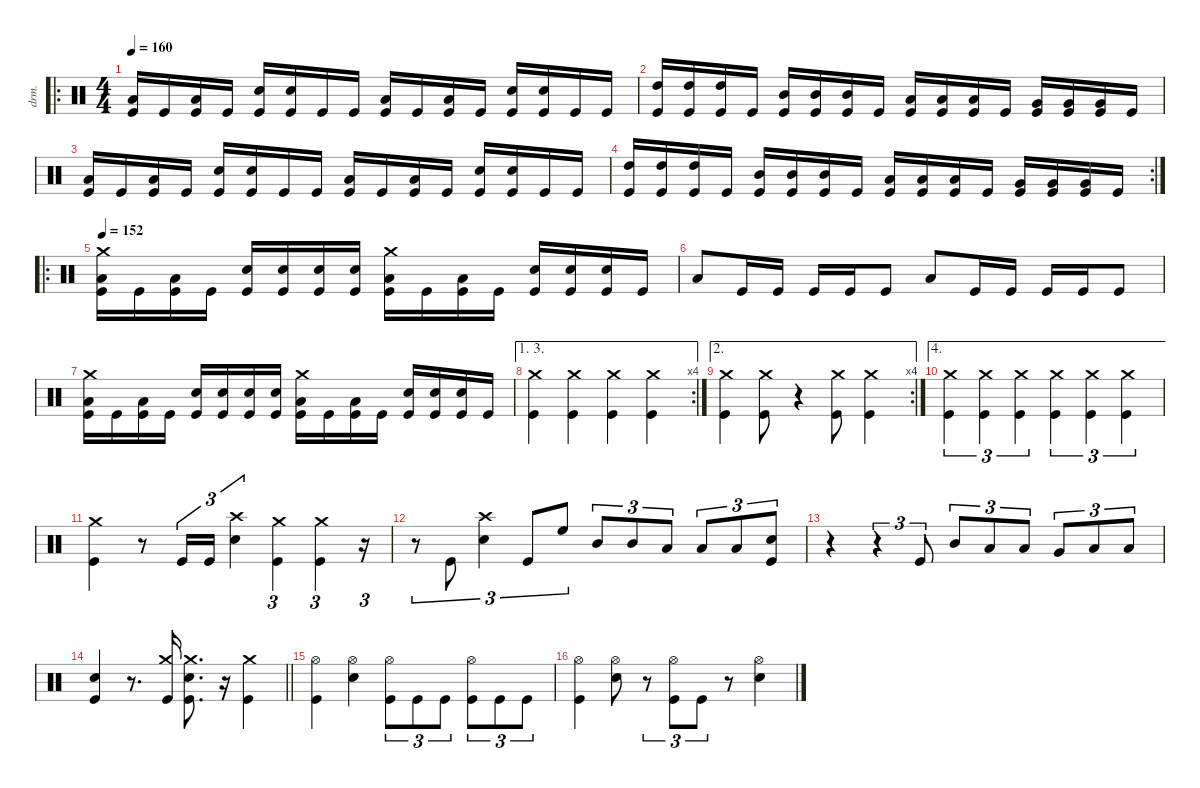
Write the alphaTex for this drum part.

\defaultSystemsLayout 4
\hideDynamics
\bracketExtendMode nobrackets
\otherSystemsTrackNameOrientation horizontal
\track ("Nick Menza" "drm.") {instrument percussion}
\staff {score}
\articulation defaults
\ro
\ts (4 4)
\beaming (8 2 2 2 2)
\tempo 160
\clef neutral
\ks c
("Low Floor Tom (hit)" "Kick (hit)").16{dy f beam Up} "Kick (hit)".16{beam Up} ("Low Floor Tom (hit)" "Kick (hit)").16{beam Up} "Kick (hit)".16{beam Up} ("Snare (hit) 2" "Kick (hit)").16{beam Up} ("Snare (hit) 2" "Kick (hit)").16{beam Up} "Kick (hit)".16{beam Up} "Kick (hit)".16{beam Up} ("Low Floor Tom (hit)" "Kick (hit)").16{beam Up} "Kick (hit)".16{beam Up} ("Low Floor Tom (hit)" "Kick (hit)").16{beam Up} "Kick (hit)".16{beam Up} ("Snare (hit) 2" "Kick (hit)").16{beam Up} ("Snare (hit) 2" "Kick (hit)").16{beam Up} "Kick (hit)".16{beam Up} "Kick (hit)".16{beam Up} |
("High Tom (hit)" "Kick (hit)").16{beam Up} ("High Tom (hit)" "Kick (hit)").16{beam Up} ("High Tom (hit)" "Kick (hit)").16{beam Up} "Kick (hit)".16{beam Up} ("Mid Tom (hit)" "Kick (hit)").16{beam Up} ("Mid Tom (hit)" "Kick (hit)").16{beam Up} ("Mid Tom (hit)" "Kick (hit)").16{beam Up} "Kick (hit)".16{beam Up} ("Low Tom (hit)" "Kick (hit)").16{beam Up} ("Low Tom (hit)" "Kick (hit)").16{beam Up} ("Low Tom (hit)" "Kick (hit)").16{beam Up} "Kick (hit)".16{beam Up} ("Very Low Tom (hit)" "Kick (hit)").16{beam Up} ("Very Low Tom (hit)" "Kick (hit)").16{beam Up} ("Very Low Tom (hit)" "Kick (hit)").16{beam Up} "Kick (hit)".16{beam Up} |
("Low Floor Tom (hit)" "Kick (hit)").16{beam Up} "Kick (hit)".16{beam Up} ("Low Floor Tom (hit)" "Kick (hit)").16{beam Up} "Kick (hit)".16{beam Up} ("Snare (hit) 2" "Kick (hit)").16{beam Up} ("Snare (hit) 2" "Kick (hit)").16{beam Up} "Kick (hit)".16{beam Up} "Kick (hit)".16{beam Up} ("Low Floor Tom (hit)" "Kick (hit)").16{beam Up} "Kick (hit)".16{beam Up} ("Low Floor Tom (hit)" "Kick (hit)").16{beam Up} "Kick (hit)".16{beam Up} ("Snare (hit) 2" "Kick (hit)").16{beam Up} ("Snare (hit) 2" "Kick (hit)").16{beam Up} "Kick (hit)".16{beam Up} "Kick (hit)".16{beam Up} |
\rc 2
("High Tom (hit)" "Kick (hit)").16{beam Up} ("High Tom (hit)" "Kick (hit)").16{beam Up} ("High Tom (hit)" "Kick (hit)").16{beam Up} "Kick (hit)".16{beam Up} ("Mid Tom (hit)" "Kick (hit)").16{beam Up} ("Mid Tom (hit)" "Kick (hit)").16{beam Up} ("Mid Tom (hit)" "Kick (hit)").16{beam Up} "Kick (hit)".16{beam Up} ("Low Tom (hit)" "Kick (hit)").16{beam Up} ("Low Tom (hit)" "Kick (hit)").16{beam Up} ("Low Tom (hit)" "Kick (hit)").16{beam Up} "Kick (hit)".16{beam Up} ("Very Low Tom (hit)" "Kick (hit)").16{beam Up} ("Very Low Tom (hit)" "Kick (hit)").16{beam Up} ("Very Low Tom (hit)" "Kick (hit)").16{beam Up} "Kick (hit)".16{beam Up} |
\ro
\tempo 152
("Crash medium (hit)" "Low Floor Tom (hit)" "Kick (hit)").16{beam Down} "Kick (hit)".16{beam Down} ("Low Floor Tom (hit)" "Kick (hit)").16{beam Down} "Kick (hit)".16{beam Down} ("Snare (hit) 2" "Kick (hit)").16{beam Up} ("Snare (hit) 2" "Kick (hit)").16{beam Up} ("Snare (hit) 2" "Kick (hit)").16{beam Up} ("Snare (hit) 2" "Kick (hit)").16{beam Up} ("Crash medium (hit)" "Low Floor Tom (hit)" "Kick (hit)").16{beam Down} "Kick (hit)".16{beam Down} ("Low Floor Tom (hit)" "Kick (hit)").16{beam Down} "Kick (hit)".16{beam Down} ("Snare (hit) 2" "Kick (hit)").16{beam Up} ("Snare (hit) 2" "Kick (hit)").16{beam Up} ("Snare (hit) 2" "Kick (hit)").16{beam Up} "Kick (hit)".16{beam Up} |
"Low Floor Tom (hit)".8{beam Up} "Kick (hit)".16{beam Up} "Kick (hit)".16{beam Up} "Kick (hit)".16{beam Up} "Kick (hit)".16{beam Up} "Kick (hit)".8{beam Up} "Low Floor Tom (hit)".8{beam Up} "Kick (hit)".16{beam Up} "Kick (hit)".16{beam Up} "Kick (hit)".16{beam Up} "Kick (hit)".16{beam Up} "Kick (hit)".8{beam Up} |
("Crash medium (hit)" "Low Floor Tom (hit)" "Kick (hit)").16{beam Down} "Kick (hit)".16{beam Down} ("Low Floor Tom (hit)" "Kick (hit)").16{beam Down} "Kick (hit)".16{beam Down} ("Snare (hit) 2" "Kick (hit)").16{beam Up} ("Snare (hit) 2" "Kick (hit)").16{beam Up} ("Snare (hit) 2" "Kick (hit)").16{beam Up} ("Snare (hit) 2" "Kick (hit)").16{beam Up} ("Crash medium (hit)" "Low Floor Tom (hit)" "Kick (hit)").16{beam Down} "Kick (hit)".16{beam Down} ("Low Floor Tom (hit)" "Kick (hit)").16{beam Down} "Kick (hit)".16{beam Down} ("Snare (hit) 2" "Kick (hit)").16{beam Up} ("Snare (hit) 2" "Kick (hit)").16{beam Up} ("Snare (hit) 2" "Kick (hit)").16{beam Up} "Kick (hit)".16{beam Up} |
\ae (1 3)
\rc 4
("Crash medium (hit)" "Kick (hit)").4{beam Down} ("Crash medium (hit)" "Kick (hit)").4{beam Down} ("Crash medium (hit)" "Kick (hit)").4{beam Down} ("Crash medium (hit)" "Kick (hit)").4{beam Down} |
\ae 2
\rc 4
("Crash medium (hit)" "Kick (hit)").4{beam Down} ("Crash medium (hit)" "Kick (hit)").8{beam Down} r.4{beam Down} ("Crash medium (hit)" "Kick (hit)").8{beam Down} ("Crash medium (hit)" "Kick (hit)").4{beam Down} |
\ae 4
("Crash medium (hit)" "Kick (hit)").4{tu (3 2) beam Down} ("Crash medium (hit)" "Kick (hit)").4{tu (3 2) beam Down} ("Crash medium (hit)" "Kick (hit)").4{tu (3 2) beam Down} ("Crash medium (hit)" "Kick (hit)").4{tu (3 2) beam Down} ("Crash medium (hit)" "Kick (hit)").4{tu (3 2) beam Down} ("Crash medium (hit)" "Kick (hit)").4{tu (3 2) beam Down} |
("Crash medium (hit)" "Kick (hit)").4{beam Down} r.8{beam Down} "Kick (hit)".16{tu (3 2) beam Up} "Kick (hit)".16{tu (3 2) beam Up} ("Crash high (hit)" "Snare (hit) 2").4{tu (3 2) beam Down} ("Crash medium (hit)" "Kick (hit)").4{tu (3 2) beam Down} ("Crash medium (hit)" "Kick (hit)").4{tu (3 2) beam Down} r.16{tu (3 2) beam Down} |
r.8{tu (3 2) beam Down} "Kick (hit)".8{tu (3 2) beam Up} ("Crash high (hit)" "Snare (hit) 2").4{tu (3 2) beam Down} "Kick (hit)".8{tu (3 2) beam Up} "High Floor Tom (hit)".8{tu (3 2) beam Up} "Mid Tom (hit)".8{tu (3 2) beam Up} "Mid Tom (hit)".8{tu (3 2) beam Up} "Low Tom (hit)".8{tu (3 2) beam Up} "Low Tom (hit)".8{tu (3 2) beam Up} "Low Tom (hit)".8{tu (3 2) beam Up} ("Snare (hit) 2" "Kick (hit)").8{tu (3 2) beam Up} |
r.4{beam Down} r.4{tu (3 2) beam Down} "Kick (hit)".8{tu (3 2) beam Up} "Mid Tom (hit)".8{tu (3 2) beam Up} "Low Tom (hit)".8{tu (3 2) beam Up} "Low Tom (hit)".8{tu (3 2) beam Up} "Very Low Tom (hit)".8{tu (3 2) beam Up} "Low Floor Tom (hit)".8{tu (3 2) beam Up} "Low Floor Tom (hit)".8{tu (3 2) beam Up} |
\barLineRight lightlight
("Snare (hit) 2" "Kick (hit)").4{beam Up} r.8{d beam Up} ("Crash medium (hit)" "Kick (hit)").16{beam Down} ("Crash medium (hit)" "Snare (hit) 2" "Kick (hit)").8{d beam Down} r.16{beam Down} ("Crash medium (hit)" "Kick (hit)").4{beam Down} |
("Hi-Hat (open)" "Kick (hit)").4{beam Down} ("Hi-Hat (open)" "Snare (hit) 2").4{beam Down} ("Hi-Hat (open)" "Kick (hit)").8{tu (3 2) beam Down} "Kick (hit)".8{tu (3 2) beam Down} "Kick (hit)".8{tu (3 2) beam Down} ("Hi-Hat (open)" "Kick (hit)").8{tu (3 2) beam Down} "Kick (hit)".8{tu (3 2) beam Down} "Kick (hit)".8{tu (3 2) beam Down} |
("Hi-Hat (open)" "Kick (hit)").4{beam Down} ("Hi-Hat (open)" "Snare (hit) 2").8{beam Down} r.8{tu (3 2) beam Down} ("Hi-Hat (open)" "Kick (hit)").8{tu (3 2) beam Down} "Kick (hit)".8{tu (3 2) beam Down} r.8{beam Down} ("Hi-Hat (open)" "Snare (hit) 2").4{beam Down}
